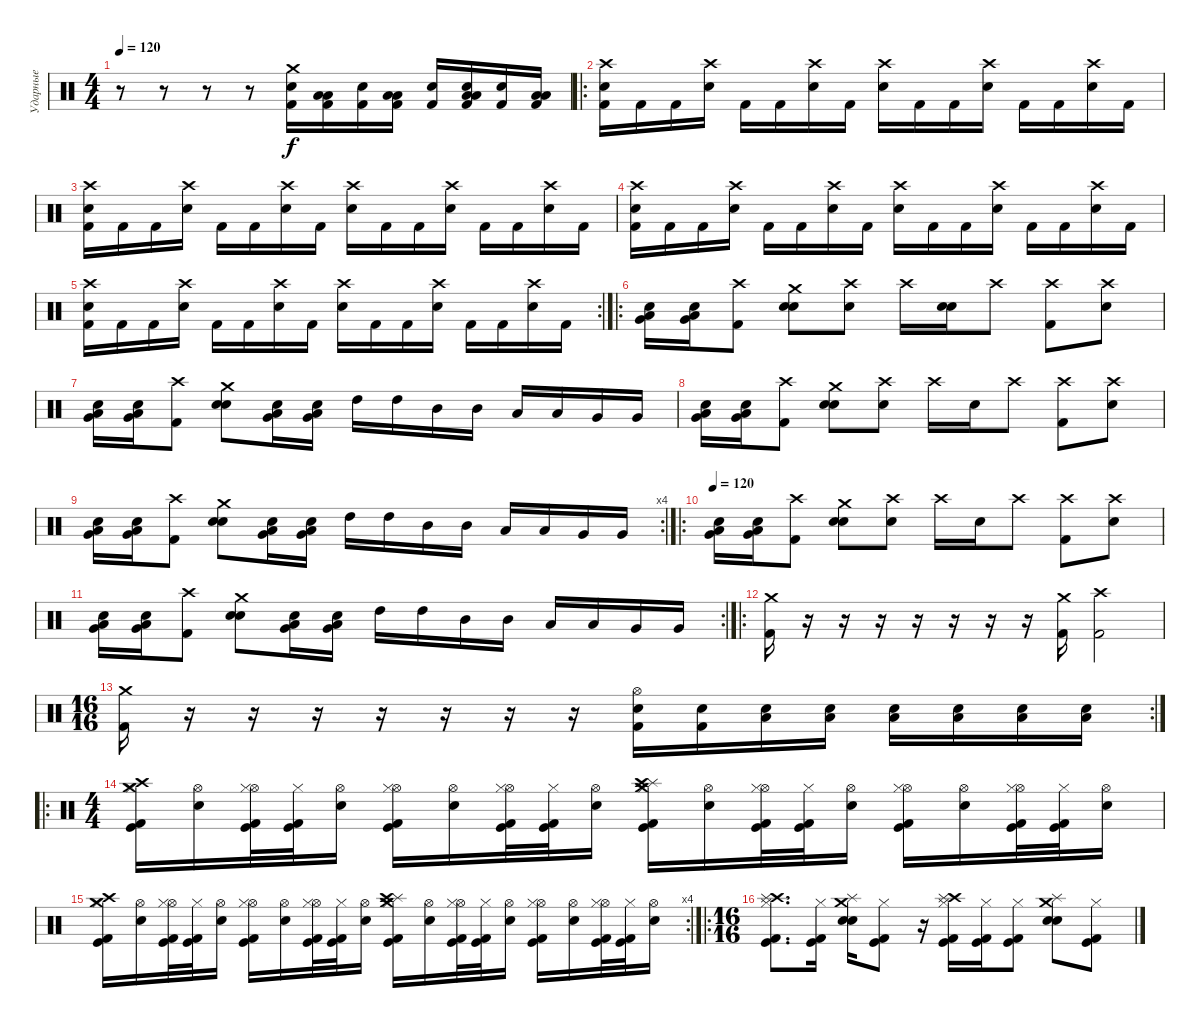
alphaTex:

\track ("Ударные" "Ударные") {instrument percussion}
\staff {score}
\articulation defaults
\ts (4 4)
\tempo 120
\clef neutral
\ks c
r.8{dy f} r.8 r.8 r.8 ("Crash medium (hit)" "Electric Snare (hit)" "Kick (hit) 2").16 ("Low Tom (hit)" "Low Floor Tom (hit)" "Kick (hit) 2").16 ("Electric Snare (hit)" "Kick (hit) 2").16 ("Low Tom (hit)" "Low Floor Tom (hit)" "Kick (hit) 2").16 ("Electric Snare (hit)" "Kick (hit) 2").16 ("Low Tom (hit)" "Low Floor Tom (hit)" "Snare (hit)" "Kick (hit) 2").16 ("Electric Snare (hit)" "Kick (hit) 2").16 ("Low Tom (hit)" "Low Floor Tom (hit)" "Kick (hit) 2").16 |
\ro
("Crash high (hit)" "Electric Snare (hit)" "Kick (hit) 2").16 "Kick (hit) 2".16 "Kick (hit) 2".16 ("Crash high (hit)" "Electric Snare (hit)").16 "Kick (hit) 2".16 "Kick (hit) 2".16 ("Crash high (hit)" "Electric Snare (hit)").16 "Kick (hit) 2".16 ("Crash high (hit)" "Electric Snare (hit)").16 "Kick (hit) 2".16 "Kick (hit) 2".16 ("Crash high (hit)" "Electric Snare (hit)").16 "Kick (hit) 2".16 "Kick (hit) 2".16 ("Crash high (hit)" "Electric Snare (hit)").16 "Kick (hit) 2".16 |
("Crash high (hit)" "Electric Snare (hit)" "Kick (hit) 2").16 "Kick (hit) 2".16 "Kick (hit) 2".16 ("Crash high (hit)" "Electric Snare (hit)").16 "Kick (hit) 2".16 "Kick (hit) 2".16 ("Crash high (hit)" "Electric Snare (hit)").16 "Kick (hit) 2".16 ("Crash high (hit)" "Electric Snare (hit)").16 "Kick (hit) 2".16 "Kick (hit) 2".16 ("Crash high (hit)" "Electric Snare (hit)").16 "Kick (hit) 2".16 "Kick (hit) 2".16 ("Crash high (hit)" "Electric Snare (hit)").16 "Kick (hit) 2".16 |
("Crash high (hit)" "Electric Snare (hit)" "Kick (hit) 2").16 "Kick (hit) 2".16 "Kick (hit) 2".16 ("Crash high (hit)" "Electric Snare (hit)").16 "Kick (hit) 2".16 "Kick (hit) 2".16 ("Crash high (hit)" "Electric Snare (hit)").16 "Kick (hit) 2".16 ("Crash high (hit)" "Electric Snare (hit)").16 "Kick (hit) 2".16 "Kick (hit) 2".16 ("Crash high (hit)" "Electric Snare (hit)").16 "Kick (hit) 2".16 "Kick (hit) 2".16 ("Crash high (hit)" "Electric Snare (hit)").16 "Kick (hit) 2".16 |
\rc 2
("Crash high (hit)" "Electric Snare (hit)" "Kick (hit) 2").16 "Kick (hit) 2".16 "Kick (hit) 2".16 ("Crash high (hit)" "Electric Snare (hit)").16 "Kick (hit) 2".16 "Kick (hit) 2".16 ("Crash high (hit)" "Electric Snare (hit)").16 "Kick (hit) 2".16 ("Crash high (hit)" "Electric Snare (hit)").16 "Kick (hit) 2".16 "Kick (hit) 2".16 ("Crash high (hit)" "Electric Snare (hit)").16 "Kick (hit) 2".16 "Kick (hit) 2".16 ("Crash high (hit)" "Electric Snare (hit)").16 "Kick (hit) 2".16 |
\ro
("Snare (hit) 2" "Very Low Tom (hit)" "Low Floor Tom (hit)").16 ("Snare (hit) 2" "Very Low Tom (hit)" "Low Floor Tom (hit)").16 ("Crash high (hit)" "Kick (hit) 2").8 ("Crash medium (hit)" "Snare (hit) 2" "Electric Snare (hit)").8 ("Crash high (hit)" "Electric Snare (hit)").8 "Crash high (hit)".16 ("Snare (hit) 2" "Electric Snare (hit)").16 "Crash high (hit)".8 ("Crash high (hit)" "Kick (hit) 2").8 ("Crash high (hit)" "Electric Snare (hit)").8 |
("Snare (hit) 2" "Very Low Tom (hit)" "Low Floor Tom (hit)").16 ("Snare (hit) 2" "Very Low Tom (hit)" "Low Floor Tom (hit)").16 ("Crash high (hit)" "Kick (hit) 2").8 ("Crash medium (hit)" "Snare (hit) 2" "Electric Snare (hit)").8 ("Snare (hit) 2" "Very Low Tom (hit)" "Low Floor Tom (hit)").16 ("Snare (hit) 2" "Very Low Tom (hit)" "Low Floor Tom (hit)").16 "High Tom (hit)".16 "High Tom (hit)".16 "Mid Tom (hit)".16 "Mid Tom (hit)".16 "Low Tom (hit)".16 "Low Tom (hit)".16 "Very Low Tom (hit)".16 "Very Low Tom (hit)".16 |
("Snare (hit) 2" "Very Low Tom (hit)" "Low Floor Tom (hit)").16 ("Snare (hit) 2" "Very Low Tom (hit)" "Low Floor Tom (hit)").16 ("Crash high (hit)" "Kick (hit) 2").8 ("Crash medium (hit)" "Snare (hit) 2" "Electric Snare (hit)").8 ("Crash high (hit)" "Electric Snare (hit)").8 "Crash high (hit)".16 "Electric Snare (hit)".16 "Crash high (hit)".8 ("Crash high (hit)" "Kick (hit) 2").8 ("Crash high (hit)" "Electric Snare (hit)").8 |
\rc 4
("Snare (hit) 2" "Very Low Tom (hit)" "Low Floor Tom (hit)").16 ("Snare (hit) 2" "Very Low Tom (hit)" "Low Floor Tom (hit)").16 ("Crash high (hit)" "Kick (hit) 2").8 ("Crash medium (hit)" "Snare (hit) 2" "Electric Snare (hit)").8 ("Snare (hit) 2" "Very Low Tom (hit)" "Low Floor Tom (hit)").16 ("Snare (hit) 2" "Very Low Tom (hit)" "Low Floor Tom (hit)").16 "High Tom (hit)".16 "High Tom (hit)".16 "Mid Tom (hit)".16 "Mid Tom (hit)".16 "Low Tom (hit)".16 "Low Tom (hit)".16 "Very Low Tom (hit)".16 "Very Low Tom (hit)".16 |
\ro
\tempo 120
("Snare (hit) 2" "Very Low Tom (hit)" "Low Floor Tom (hit)").16 ("Snare (hit) 2" "Very Low Tom (hit)" "Low Floor Tom (hit)").16 ("Crash high (hit)" "Kick (hit) 2").8 ("Crash medium (hit)" "Snare (hit) 2" "Electric Snare (hit)").8 ("Crash high (hit)" "Electric Snare (hit)").8 "Crash high (hit)".16 "Electric Snare (hit)".16 "Crash high (hit)".8 ("Crash high (hit)" "Kick (hit) 2").8 ("Crash high (hit)" "Electric Snare (hit)").8 |
\rc 2
("Snare (hit) 2" "Very Low Tom (hit)" "Low Floor Tom (hit)").16 ("Snare (hit) 2" "Very Low Tom (hit)" "Low Floor Tom (hit)").16 ("Crash high (hit)" "Kick (hit) 2").8 ("Crash medium (hit)" "Snare (hit) 2" "Electric Snare (hit)").8 ("Snare (hit) 2" "Very Low Tom (hit)" "Low Floor Tom (hit)").16 ("Snare (hit) 2" "Very Low Tom (hit)" "Low Floor Tom (hit)").16 "High Tom (hit)".16 "High Tom (hit)".16 "Mid Tom (hit)".16 "Mid Tom (hit)".16 "Low Tom (hit)".16 "Low Tom (hit)".16 "Very Low Tom (hit)".16 "Very Low Tom (hit)".16 |
\ro
("Crash medium (hit)" "Kick (hit) 2").16 r.16{volume 0} r.16 r.16 r.16 r.16 r.16 r.16{volume 13} ("Crash medium (hit)" "Kick (hit) 2").16 ("Crash high (hit)" "Kick (hit) 2").2 |
\rc 2
\ts (16 16)
("Crash medium (hit)" "Kick (hit) 2").16 r.16{volume 0} r.16 r.16 r.16 r.16 r.16 r.16{volume 13} ("Hi-Hat (open)" "Electric Snare (hit)" "Kick (hit) 2").16 ("Electric Snare (hit)" "Kick (hit) 2").16 ("Low Floor Tom (hit)" "Electric Snare (hit)").16 ("Low Floor Tom (hit)" "Electric Snare (hit)").16 ("Low Floor Tom (hit)" "Electric Snare (hit)").16 ("Low Floor Tom (hit)" "Electric Snare (hit)").16 ("Low Floor Tom (hit)" "Electric Snare (hit)").16 ("Low Floor Tom (hit)" "Electric Snare (hit)").16 |
\ro
\ts (4 4)
("Crash medium (hit)" "Crash high (hit)" "Kick (hit)" "Kick (hit) 2" "Hi-Hat (closed)").16 ("Hi-Hat (open)" "Electric Snare (hit)").16 ("Hi-Hat (open)" "Kick (hit)" "Kick (hit) 2" "Hi-Hat (closed)").32 ("Kick (hit)" "Kick (hit) 2" "Hi-Hat (closed)").32 ("Hi-Hat (open)" "Electric Snare (hit)").16 ("Hi-Hat (open)" "Kick (hit)" "Kick (hit) 2" "Hi-Hat (closed)").16 ("Hi-Hat (open)" "Electric Snare (hit)").16 ("Hi-Hat (open)" "Kick (hit)" "Kick (hit) 2" "Hi-Hat (closed)").32 ("Kick (hit)" "Kick (hit) 2" "Hi-Hat (closed)").32 ("Hi-Hat (open)" "Electric Snare (hit)").16 ("Splash (hit)" "Crash medium (hit)" "Crash high (hit)" "Kick (hit)" "Kick (hit) 2" "Hi-Hat (closed)").16 ("Hi-Hat (open)" "Electric Snare (hit)").16 ("Hi-Hat (open)" "Kick (hit)" "Kick (hit) 2" "Hi-Hat (closed)").32 ("Kick (hit)" "Kick (hit) 2" "Hi-Hat (closed)").32 ("Hi-Hat (open)" "Electric Snare (hit)").16 ("Hi-Hat (open)" "Kick (hit)" "Kick (hit) 2" "Hi-Hat (closed)").16 ("Hi-Hat (open)" "Electric Snare (hit)").16 ("Hi-Hat (open)" "Kick (hit)" "Kick (hit) 2" "Hi-Hat (closed)").32 ("Kick (hit)" "Kick (hit) 2" "Hi-Hat (closed)").32 ("Hi-Hat (open)" "Electric Snare (hit)").16 |
\rc 4
("Crash medium (hit)" "Crash high (hit)" "Kick (hit)" "Kick (hit) 2" "Hi-Hat (closed)").16 ("Hi-Hat (open)" "Electric Snare (hit)").16 ("Hi-Hat (open)" "Kick (hit)" "Kick (hit) 2" "Hi-Hat (closed)").32 ("Kick (hit)" "Kick (hit) 2" "Hi-Hat (closed)").32 ("Hi-Hat (open)" "Electric Snare (hit)").16 ("Hi-Hat (open)" "Kick (hit)" "Kick (hit) 2" "Hi-Hat (closed)").16 ("Hi-Hat (open)" "Electric Snare (hit)").16 ("Hi-Hat (open)" "Kick (hit)" "Kick (hit) 2" "Hi-Hat (closed)").32 ("Kick (hit)" "Kick (hit) 2" "Hi-Hat (closed)").32 ("Hi-Hat (open)" "Electric Snare (hit)").16 ("Splash (hit)" "Crash medium (hit)" "Crash high (hit)" "Kick (hit)" "Kick (hit) 2" "Hi-Hat (closed)").16 ("Hi-Hat (open)" "Electric Snare (hit)").16 ("Hi-Hat (open)" "Kick (hit)" "Kick (hit) 2" "Hi-Hat (closed)").32 ("Kick (hit)" "Kick (hit) 2" "Hi-Hat (closed)").32 ("Hi-Hat (open)" "Electric Snare (hit)").16 ("Hi-Hat (open)" "Kick (hit)" "Kick (hit) 2" "Hi-Hat (closed)").16 ("Hi-Hat (open)" "Electric Snare (hit)").16 ("Hi-Hat (open)" "Kick (hit)" "Kick (hit) 2" "Hi-Hat (closed)").32 ("Kick (hit)" "Kick (hit) 2" "Hi-Hat (closed)").32 ("Hi-Hat (open)" "Electric Snare (hit)").16 |
\ro
\ts (16 16)
("Crash high (hit)" "Splash (hit)" "Hi-Hat (closed)" "Kick (hit)" "Kick (hit) 2").8{d} ("Hi-Hat (closed)" "Kick (hit)" "Kick (hit) 2").16 ("Crash medium (hit)" "Splash (hit)" "Snare (hit) 2" "Electric Snare (hit)").16 ("Hi-Hat (closed)" "Kick (hit)" "Kick (hit) 2").8 r.16 ("Crash high (hit)" "Splash (hit)" "Hi-Hat (closed)" "Kick (hit)" "Kick (hit) 2").16 ("Hi-Hat (closed)" "Kick (hit)" "Kick (hit) 2").16 ("Hi-Hat (closed)" "Kick (hit)" "Kick (hit) 2").8 ("Crash medium (hit)" "Splash (hit)" "Snare (hit) 2" "Electric Snare (hit)").8 ("Hi-Hat (closed)" "Kick (hit)" "Kick (hit) 2").8
